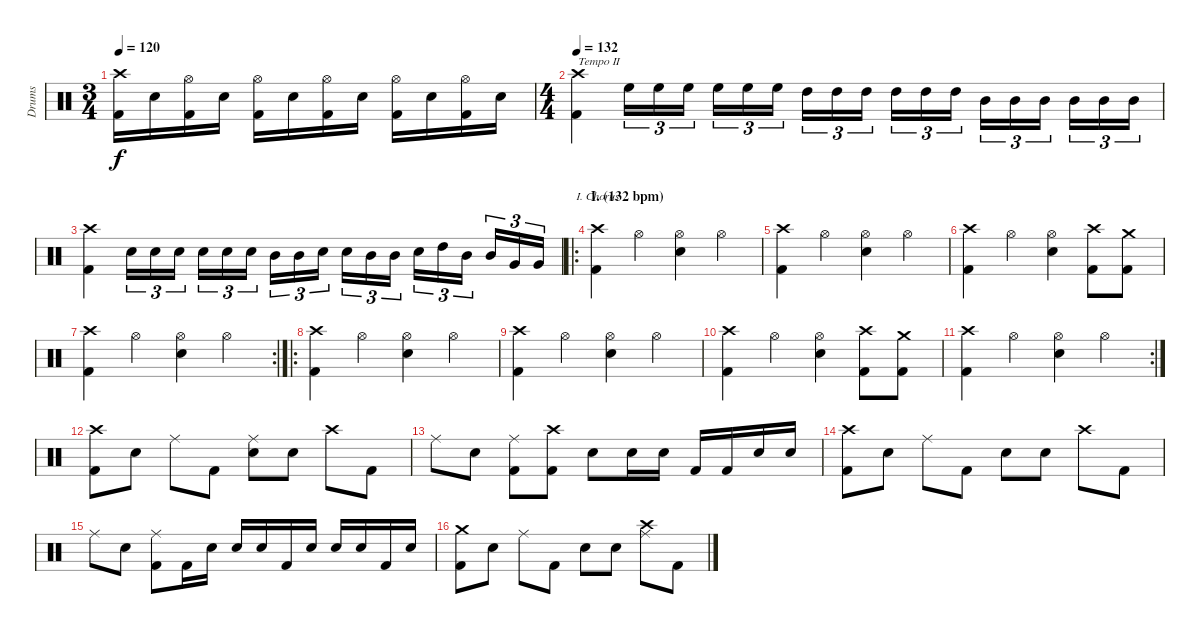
\track ("Drums" "Drums") {instrument percussion}
\staff {score}
\articulation defaults
\chord ("I. Chorus") {firstfret 0}
\ts (3 4)
\tempo 120
\clef neutral
\ks c
("Crash high (hit)" "Kick (hit) 2").16{dy f} "Snare (hit) 2".16 ("Hi-Hat (open)" "Kick (hit) 2").16 "Snare (hit) 2".16 ("Hi-Hat (open)" "Kick (hit) 2").16 "Snare (hit) 2".16 ("Hi-Hat (open)" "Kick (hit) 2").16 "Snare (hit) 2".16 ("Hi-Hat (open)" "Kick (hit) 2").16 "Snare (hit) 2".16 ("Hi-Hat (open)" "Kick (hit) 2").16 "Snare (hit) 2".16 |
\ts (4 4)
\tempo 135
\tempo 132
("Crash high (hit)" "Kick (hit) 2").4{txt "Tempo II"} "High Floor Tom (hit)".16{tu (3 2)} "High Floor Tom (hit)".16{tu (3 2)} "High Floor Tom (hit)".16{tu (3 2)} "High Floor Tom (hit)".16{tu (3 2)} "High Floor Tom (hit)".16{tu (3 2)} "High Floor Tom (hit)".16{tu (3 2)} "High Tom (hit)".16{tu (3 2)} "High Tom (hit)".16{tu (3 2)} "High Tom (hit)".16{tu (3 2)} "High Tom (hit)".16{tu (3 2)} "High Tom (hit)".16{tu (3 2)} "High Tom (hit)".16{tu (3 2)} "Mid Tom (hit)".16{tu (3 2)} "Mid Tom (hit)".16{tu (3 2)} "Mid Tom (hit)".16{tu (3 2)} "Mid Tom (hit)".16{tu (3 2)} "Mid Tom (hit)".16{tu (3 2)} "Mid Tom (hit)".16{tu (3 2)} |
("Crash high (hit)" "Kick (hit) 2").4 "Snare (hit) 2".16{tu (3 2)} "Snare (hit) 2".16{tu (3 2)} "Snare (hit) 2".16{tu (3 2)} "Snare (hit) 2".16{tu (3 2)} "Snare (hit) 2".16{tu (3 2)} "Snare (hit) 2".16{tu (3 2)} "Mid Tom (hit)".16{tu (3 2)} "Mid Tom (hit)".16{tu (3 2)} "Snare (hit) 2".16{tu (3 2)} "Snare (hit) 2".16{tu (3 2)} "Mid Tom (hit)".16{tu (3 2)} "Mid Tom (hit)".16{tu (3 2)} "Snare (hit) 2".16{tu (3 2)} "High Tom (hit)".16{tu (3 2)} "Mid Tom (hit)".16{tu (3 2)} "Mid Tom (hit)".16{tu (3 2)} "Very Low Tom (hit)".16{tu (3 2)} "Very Low Tom (hit)".16{tu (3 2)} |
\ro
\section ("" "I. (132 bpm)")
("Crash high (hit)" "Kick (hit) 2").4{ch "I. Chorus"} "Hi-Hat (open)".4 ("Hi-Hat (open)" "Snare (hit) 2").4 "Hi-Hat (open)".4 |
("Crash high (hit)" "Kick (hit) 2").4 "Hi-Hat (open)".4 ("Hi-Hat (open)" "Snare (hit) 2").4 "Hi-Hat (open)".4 |
("Crash high (hit)" "Kick (hit) 2").4 "Hi-Hat (open)".4 ("Hi-Hat (open)" "Snare (hit) 2").4 ("Crash high (hit)" "Kick (hit) 2").8 ("Crash medium (hit)" "Kick (hit) 2").8 |
\rc 2
("Crash high (hit)" "Kick (hit) 2").4 "Hi-Hat (open)".4 ("Hi-Hat (open)" "Snare (hit) 2").4 "Hi-Hat (open)".4 |
\ro
("Crash high (hit)" "Kick (hit) 2").4 "Hi-Hat (open)".4 ("Hi-Hat (open)" "Snare (hit) 2").4 "Hi-Hat (open)".4 |
("Crash high (hit)" "Kick (hit) 2").4 "Hi-Hat (open)".4 ("Hi-Hat (open)" "Snare (hit) 2").4 "Hi-Hat (open)".4 |
("Crash high (hit)" "Kick (hit) 2").4 "Hi-Hat (open)".4 ("Hi-Hat (open)" "Snare (hit) 2").4 ("Crash high (hit)" "Kick (hit) 2").8 ("Crash medium (hit)" "Kick (hit) 2").8 |
\rc 2
("Crash high (hit)" "Kick (hit) 2").4 "Hi-Hat (open)".4 ("Hi-Hat (open)" "Snare (hit) 2").4 "Hi-Hat (open)".4 |
("Crash high (hit)" "Kick (hit) 2").8 "Snare (hit) 2".8 "Ride (middle)".8 "Kick (hit) 2".8 ("Ride (middle)" "Snare (hit) 2").8 "Snare (hit) 2".8 "Crash high (hit)".8 "Kick (hit) 2".8 |
"Ride (middle)".8 "Snare (hit) 2".8 ("Ride (middle)" "Kick (hit) 2").8 ("Crash high (hit)" "Kick (hit) 2").8 "Snare (hit) 2".8 "Snare (hit) 2".16 "Snare (hit) 2".16 "Kick (hit) 2".16 "Kick (hit) 2".16 "Snare (hit) 2".16 "Snare (hit) 2".16 |
("Crash high (hit)" "Kick (hit) 2").8 "Snare (hit) 2".8 "Ride (middle)".8 "Kick (hit) 2".8 "Snare (hit) 2".8 "Snare (hit) 2".8 "Crash high (hit)".8 "Kick (hit) 2".8 |
"Ride (middle)".8 "Snare (hit) 2".8 ("Ride (middle)" "Kick (hit) 2").8 "Kick (hit) 2".16 "Snare (hit) 2".16 "Snare (hit) 2".16 "Snare (hit) 2".16 "Kick (hit) 2".16 "Snare (hit) 2".16 "Snare (hit) 2".16 "Snare (hit) 2".16 "Kick (hit) 2".16 "Snare (hit) 2".16 |
("Crash medium (hit)" "Kick (hit) 2").8 "Snare (hit) 2".8 "Ride (middle)".8 "Kick (hit) 2".8 "Snare (hit) 2".8 "Snare (hit) 2".8 ("Crash high (hit)" "Ride (middle)").8 "Kick (hit) 2".8
